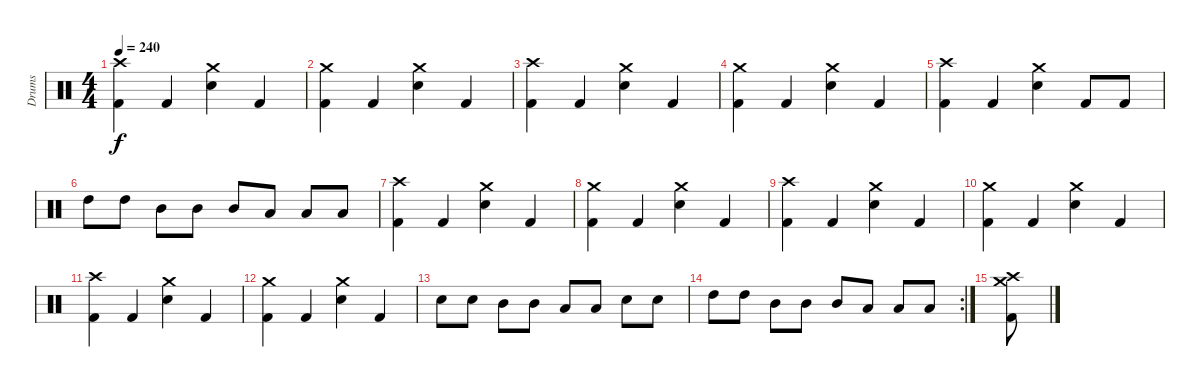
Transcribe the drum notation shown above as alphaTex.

\track ("Drums" "Drums") {instrument percussion}
\staff {score}
\articulation defaults
\ts (4 4)
\tempo 240
\clef neutral
\ks c
("Kick (hit) 2" "Crash high (hit)").4{dy f} "Kick (hit) 2".4 ("Electric Snare (hit)" "Crash medium (hit)").4 "Kick (hit) 2".4 |
("Kick (hit) 2" "Crash medium (hit)").4 "Kick (hit) 2".4 ("Electric Snare (hit)" "Crash medium (hit)").4 "Kick (hit) 2".4 |
("Kick (hit) 2" "Crash high (hit)").4 "Kick (hit) 2".4 ("Electric Snare (hit)" "Crash medium (hit)").4 "Kick (hit) 2".4 |
("Kick (hit) 2" "Crash medium (hit)").4 "Kick (hit) 2".4 ("Electric Snare (hit)" "Crash medium (hit)").4 "Kick (hit) 2".4 |
("Kick (hit) 2" "Crash high (hit)").4 "Kick (hit) 2".4 ("Electric Snare (hit)" "Crash medium (hit)").4 "Kick (hit) 2".8 "Kick (hit) 2".8 |
"High Tom (hit)".8 "High Tom (hit)".8 "Mid Tom (hit)".8 "Mid Tom (hit)".8 "Mid Tom (hit)".8 "Low Tom (hit)".8 "Low Tom (hit)".8 "Low Tom (hit)".8 |
("Kick (hit) 2" "Crash high (hit)").4 "Kick (hit) 2".4 ("Electric Snare (hit)" "Crash medium (hit)").4 "Kick (hit) 2".4 |
("Kick (hit) 2" "Crash medium (hit)").4 "Kick (hit) 2".4 ("Electric Snare (hit)" "Crash medium (hit)").4 "Kick (hit) 2".4 |
("Kick (hit) 2" "Crash high (hit)").4 "Kick (hit) 2".4 ("Electric Snare (hit)" "Crash medium (hit)").4 "Kick (hit) 2".4 |
("Kick (hit) 2" "Crash medium (hit)").4 "Kick (hit) 2".4 ("Electric Snare (hit)" "Crash medium (hit)").4 "Kick (hit) 2".4 |
("Kick (hit) 2" "Crash high (hit)").4 "Kick (hit) 2".4 ("Electric Snare (hit)" "Crash medium (hit)").4 "Kick (hit) 2".4 |
("Kick (hit) 2" "Crash medium (hit)").4 "Kick (hit) 2".4 ("Electric Snare (hit)" "Crash medium (hit)").4 "Kick (hit) 2".4 |
"Electric Snare (hit)".8 "Electric Snare (hit)".8 "Mid Tom (hit)".8 "Mid Tom (hit)".8 "Low Tom (hit)".8 "Low Tom (hit)".8 "Electric Snare (hit)".8 "Electric Snare (hit)".8 |
\rc 2 "High Tom (hit)".8 "High Tom (hit)".8 "Mid Tom (hit)".8 "Mid Tom (hit)".8 "Mid Tom (hit)".8 "Low Tom (hit)".8 "Low Tom (hit)".8 "Low Tom (hit)".8
|
("Kick (hit) 2" "Crash high (hit)" "Crash medium (hit)").8
